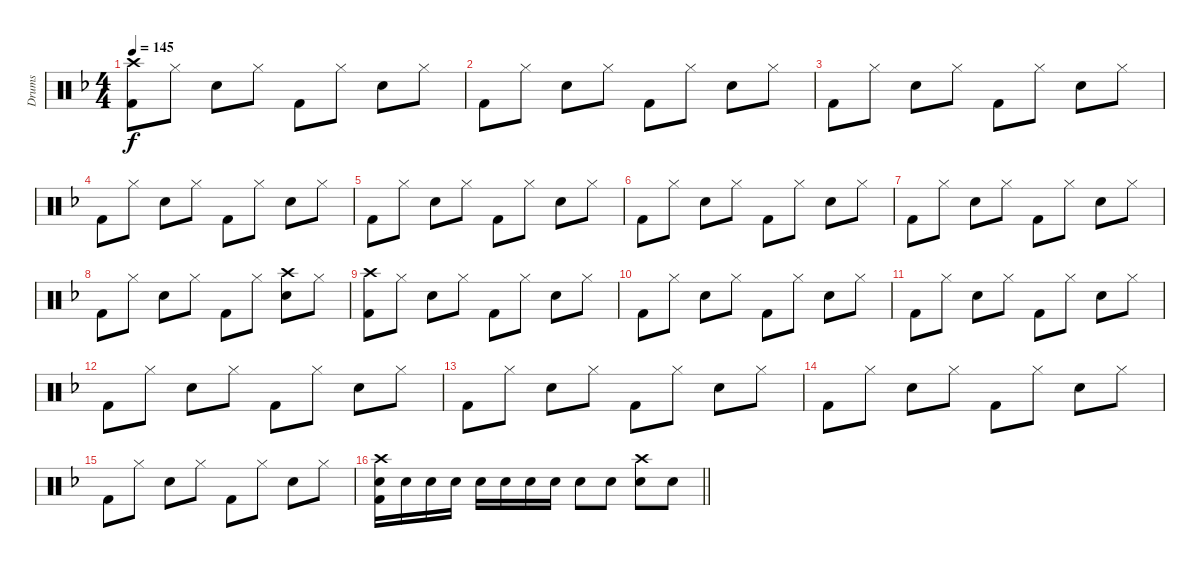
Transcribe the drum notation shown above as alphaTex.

\track ("Drums" "Drums") {instrument percussion}
\staff {score}
\articulation defaults
\ts (4 4)
\tempo 145
\clef neutral
\ks f
("Crash high (hit)" "Kick (hit) 2").8{dy f} "Hi-Hat (closed)".8 "Snare (hit) 2".8 "Hi-Hat (closed)".8 "Kick (hit) 2".8 "Hi-Hat (closed)".8 "Snare (hit) 2".8 "Hi-Hat (closed)".8 |
"Kick (hit) 2".8 "Hi-Hat (closed)".8 "Snare (hit) 2".8 "Hi-Hat (closed)".8 "Kick (hit) 2".8 "Hi-Hat (closed)".8 "Snare (hit) 2".8 "Hi-Hat (closed)".8 |
"Kick (hit) 2".8 "Hi-Hat (closed)".8 "Snare (hit) 2".8 "Hi-Hat (closed)".8 "Kick (hit) 2".8 "Hi-Hat (closed)".8 "Snare (hit) 2".8 "Hi-Hat (closed)".8 |
"Kick (hit) 2".8 "Hi-Hat (closed)".8 "Snare (hit) 2".8 "Hi-Hat (closed)".8 "Kick (hit) 2".8 "Hi-Hat (closed)".8 "Snare (hit) 2".8 "Hi-Hat (closed)".8 |
"Kick (hit) 2".8 "Hi-Hat (closed)".8 "Snare (hit) 2".8 "Hi-Hat (closed)".8 "Kick (hit) 2".8 "Hi-Hat (closed)".8 "Snare (hit) 2".8 "Hi-Hat (closed)".8 |
"Kick (hit) 2".8 "Hi-Hat (closed)".8 "Snare (hit) 2".8 "Hi-Hat (closed)".8 "Kick (hit) 2".8 "Hi-Hat (closed)".8 "Snare (hit) 2".8 "Hi-Hat (closed)".8 |
"Kick (hit) 2".8 "Hi-Hat (closed)".8 "Snare (hit) 2".8 "Hi-Hat (closed)".8 "Kick (hit) 2".8 "Hi-Hat (closed)".8 "Snare (hit) 2".8 "Hi-Hat (closed)".8 |
"Kick (hit) 2".8 "Hi-Hat (closed)".8 "Snare (hit) 2".8 "Hi-Hat (closed)".8 "Kick (hit) 2".8 "Hi-Hat (closed)".8 ("Snare (hit) 2" "Crash high (hit)").8 "Hi-Hat (closed)".8 |
("Crash high (hit)" "Kick (hit) 2").8 "Hi-Hat (closed)".8 "Snare (hit) 2".8 "Hi-Hat (closed)".8 "Kick (hit) 2".8 "Hi-Hat (closed)".8 "Snare (hit) 2".8 "Hi-Hat (closed)".8 |
"Kick (hit) 2".8 "Hi-Hat (closed)".8 "Snare (hit) 2".8 "Hi-Hat (closed)".8 "Kick (hit) 2".8 "Hi-Hat (closed)".8 "Snare (hit) 2".8 "Hi-Hat (closed)".8 |
"Kick (hit) 2".8 "Hi-Hat (closed)".8 "Snare (hit) 2".8 "Hi-Hat (closed)".8 "Kick (hit) 2".8 "Hi-Hat (closed)".8 "Snare (hit) 2".8 "Hi-Hat (closed)".8 |
"Kick (hit) 2".8 "Hi-Hat (closed)".8 "Snare (hit) 2".8 "Hi-Hat (closed)".8 "Kick (hit) 2".8 "Hi-Hat (closed)".8 "Snare (hit) 2".8 "Hi-Hat (closed)".8 |
"Kick (hit) 2".8 "Hi-Hat (closed)".8 "Snare (hit) 2".8 "Hi-Hat (closed)".8 "Kick (hit) 2".8 "Hi-Hat (closed)".8 "Snare (hit) 2".8 "Hi-Hat (closed)".8 |
"Kick (hit) 2".8 "Hi-Hat (closed)".8 "Snare (hit) 2".8 "Hi-Hat (closed)".8 "Kick (hit) 2".8 "Hi-Hat (closed)".8 "Snare (hit) 2".8 "Hi-Hat (closed)".8 |
"Kick (hit) 2".8 "Hi-Hat (closed)".8 "Snare (hit) 2".8 "Hi-Hat (closed)".8 "Kick (hit) 2".8 "Hi-Hat (closed)".8 "Snare (hit) 2".8 "Hi-Hat (closed)".8 |
\barLineRight lightlight
("Snare (hit) 2" "Kick (hit) 2" "Crash high (hit)").16 "Snare (hit) 2".16 "Snare (hit) 2".16 "Snare (hit) 2".16 "Snare (hit) 2".16 "Snare (hit) 2".16 "Snare (hit) 2".16 "Snare (hit) 2".16 "Snare (hit) 2".8 "Snare (hit) 2".8 ("Snare (hit) 2" "Crash high (hit)").8 "Snare (hit) 2".8
